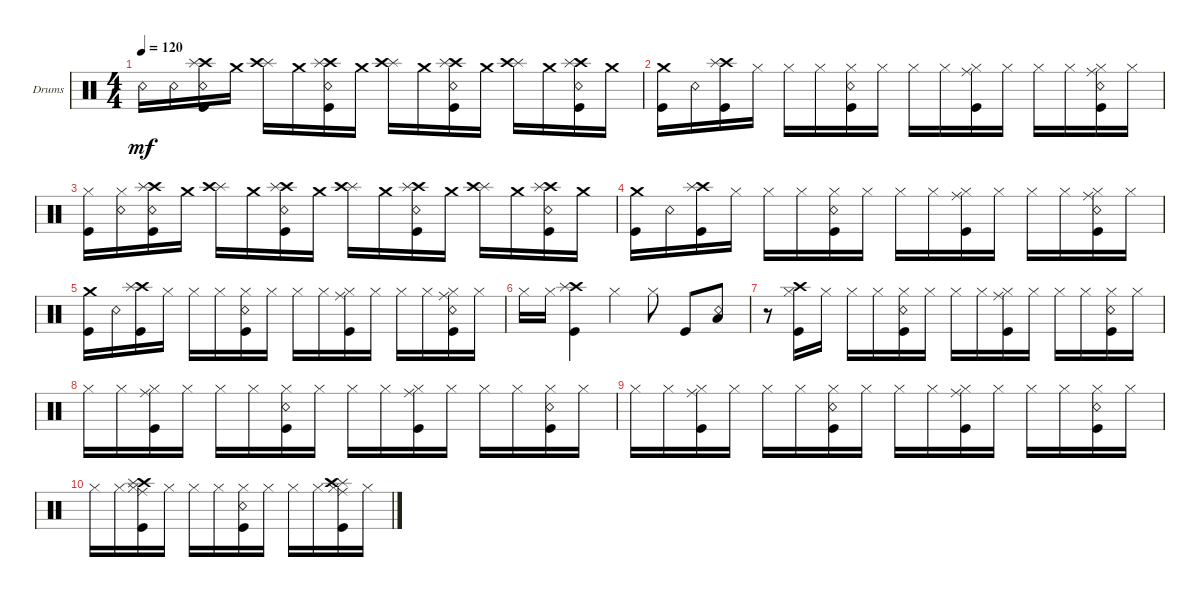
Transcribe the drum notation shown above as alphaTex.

\defaultSystemsLayout 4
\bracketExtendMode groupsimilarinstruments
\firstSystemTrackNameOrientation horizontal
\otherSystemsTrackNameOrientation horizontal
\track ("Нюта" "Drums") {instrument percussion}
\staff {score}
\articulation defaults
\ts (4 4)
\tempo 120
\clef neutral
\ks c "Snare (rim shot)".16{dy mf} "Snare (rim shot)".16
("Kick (hit)" "Crash high (hit)" "Splash (hit)" "Snare (rim shot)").16 "Crash medium (hit)".16 ("Splash (hit)" "Crash high (hit)").16 "Crash medium (hit)".16 ("Crash high (hit)" "Splash (hit)" "Kick (hit)" "Snare (rim shot)").16 "Crash medium (hit)".16 ("Splash (hit)" "Crash high (hit)").16 "Crash medium (hit)".16 ("Crash high (hit)" "Splash (hit)" "Kick (hit)" "Snare (rim shot)").16 "Crash medium (hit)".16 ("Splash (hit)" "Crash high (hit)").16 "Crash medium (hit)".16 ("Crash high (hit)" "Splash (hit)" "Kick (hit)" "Snare (rim shot)").16 "Crash medium (hit)".16 |
("Kick (hit)" "Crash medium (hit)").16 "Snare (rim shot)".16 ("Crash high (hit)" "Splash (hit)" "Kick (hit)").16 "Hi-Hat (closed)".16 "Hi-Hat (closed)".16 "Hi-Hat (closed)".16 ("Hi-Hat (closed)" "Snare (rim shot)" "Kick (hit)").16 "Hi-Hat (closed)".16 "Hi-Hat (closed)".16 "Hi-Hat (closed)".16 ("Hi-Hat (closed)" "Ride (middle)" "Kick (hit)").16 "Hi-Hat (closed)".16 "Hi-Hat (closed)".16 "Hi-Hat (closed)".16 ("Hi-Hat (closed)" "Ride (middle)" "Kick (hit)" "Snare (rim shot)").16 "Hi-Hat (closed)".16 |
("Hi-Hat (closed)" "Kick (hit)").16 ("Hi-Hat (closed)" "Snare (rim shot)").16 ("Kick (hit)" "Crash high (hit)" "Splash (hit)" "Snare (rim shot)").16 "Crash medium (hit)".16 ("Splash (hit)" "Crash high (hit)").16 "Crash medium (hit)".16 ("Crash high (hit)" "Splash (hit)" "Kick (hit)" "Snare (rim shot)").16 "Crash medium (hit)".16 ("Splash (hit)" "Crash high (hit)").16 "Crash medium (hit)".16 ("Crash high (hit)" "Splash (hit)" "Kick (hit)" "Snare (rim shot)").16 "Crash medium (hit)".16 ("Splash (hit)" "Crash high (hit)").16 "Crash medium (hit)".16 ("Crash high (hit)" "Splash (hit)" "Kick (hit)" "Snare (rim shot)").16 "Crash medium (hit)".16 |
("Kick (hit)" "Crash medium (hit)").16 "Snare (rim shot)".16 ("Crash high (hit)" "Splash (hit)" "Kick (hit)").16 "Hi-Hat (closed)".16 "Hi-Hat (closed)".16 "Hi-Hat (closed)".16 ("Hi-Hat (closed)" "Snare (rim shot)" "Kick (hit)").16 "Hi-Hat (closed)".16 "Hi-Hat (closed)".16 "Hi-Hat (closed)".16 ("Hi-Hat (closed)" "Ride (middle)" "Kick (hit)").16 "Hi-Hat (closed)".16 "Hi-Hat (closed)".16 "Hi-Hat (closed)".16 ("Hi-Hat (closed)" "Ride (middle)" "Kick (hit)" "Snare (rim shot)").16 "Hi-Hat (closed)".16 |
("Kick (hit)" "Crash medium (hit)").16 "Snare (rim shot)".16 ("Crash high (hit)" "Splash (hit)" "Kick (hit)").16 "Hi-Hat (closed)".16 "Hi-Hat (closed)".16 "Hi-Hat (closed)".16 ("Hi-Hat (closed)" "Snare (rim shot)" "Kick (hit)").16 "Hi-Hat (closed)".16 "Hi-Hat (closed)".16 "Hi-Hat (closed)".16 ("Hi-Hat (closed)" "Ride (middle)" "Kick (hit)").16 "Hi-Hat (closed)".16 "Hi-Hat (closed)".16 "Hi-Hat (closed)".16 ("Hi-Hat (closed)" "Ride (middle)" "Kick (hit)" "Snare (rim shot)").16 "Hi-Hat (closed)".16 |
"Hi-Hat (closed)".16 "Hi-Hat (closed)".16 ("Crash high (hit)" "Splash (hit)" "Kick (hit)").4 "Hi-Hat (closed)".4 "Hi-Hat (closed)".8 "Kick (hit)".8 ("Snare (rim shot)" "Low Tom (hit)").8 |
r.8 ("Hi-Hat (closed)" "Crash high (hit)" "Kick (hit)").16 "Hi-Hat (closed)".16 "Hi-Hat (closed)".16 "Hi-Hat (closed)".16 ("Hi-Hat (closed)" "Snare (rim shot)" "Kick (hit)").16 "Hi-Hat (closed)".16 "Hi-Hat (closed)".16 "Hi-Hat (closed)".16 ("Hi-Hat (closed)" "Ride (middle)" "Kick (hit)").16 "Hi-Hat (closed)".16 "Hi-Hat (closed)".16 "Hi-Hat (closed)".16 ("Hi-Hat (closed)" "Snare (rim shot)" "Kick (hit)").16 "Hi-Hat (closed)".16 |
"Hi-Hat (closed)".16 "Hi-Hat (closed)".16 ("Hi-Hat (closed)" "Ride (middle)" "Kick (hit)").16 "Hi-Hat (closed)".16 "Hi-Hat (closed)".16 "Hi-Hat (closed)".16 ("Hi-Hat (closed)" "Snare (rim shot)" "Kick (hit)").16 "Hi-Hat (closed)".16 "Hi-Hat (closed)".16 "Hi-Hat (closed)".16 ("Hi-Hat (closed)" "Ride (middle)" "Kick (hit)").16 "Hi-Hat (closed)".16 "Hi-Hat (closed)".16 "Hi-Hat (closed)".16 ("Hi-Hat (closed)" "Snare (rim shot)" "Kick (hit)").16 "Hi-Hat (closed)".16 |
"Hi-Hat (closed)".16 "Hi-Hat (closed)".16 ("Hi-Hat (closed)" "Ride (middle)" "Kick (hit)").16 "Hi-Hat (closed)".16 "Hi-Hat (closed)".16 "Hi-Hat (closed)".16 ("Hi-Hat (closed)" "Snare (rim shot)" "Kick (hit)").16 "Hi-Hat (closed)".16 "Hi-Hat (closed)".16 "Hi-Hat (closed)".16 ("Hi-Hat (closed)" "Ride (middle)" "Kick (hit)").16 "Hi-Hat (closed)".16 "Hi-Hat (closed)".16 "Hi-Hat (closed)".16 ("Hi-Hat (closed)" "Snare (rim shot)" "Kick (hit)").16 "Hi-Hat (closed)".16 |
"Hi-Hat (closed)".16 "Hi-Hat (closed)".16 ("Hi-Hat (closed)" "Ride (middle)" "Kick (hit)" "Crash high (hit)" "Splash (hit)").16 "Hi-Hat (closed)".16 "Hi-Hat (closed)".16 "Hi-Hat (closed)".16 ("Hi-Hat (closed)" "Snare (rim shot)" "Kick (hit)").16 "Hi-Hat (closed)".16 "Hi-Hat (closed)".16 "Hi-Hat (closed)".16 ("Hi-Hat (closed)" "Ride (middle)" "Kick (hit)" "Splash (hit)" "Crash high (hit)").16 "Hi-Hat (closed)".16
